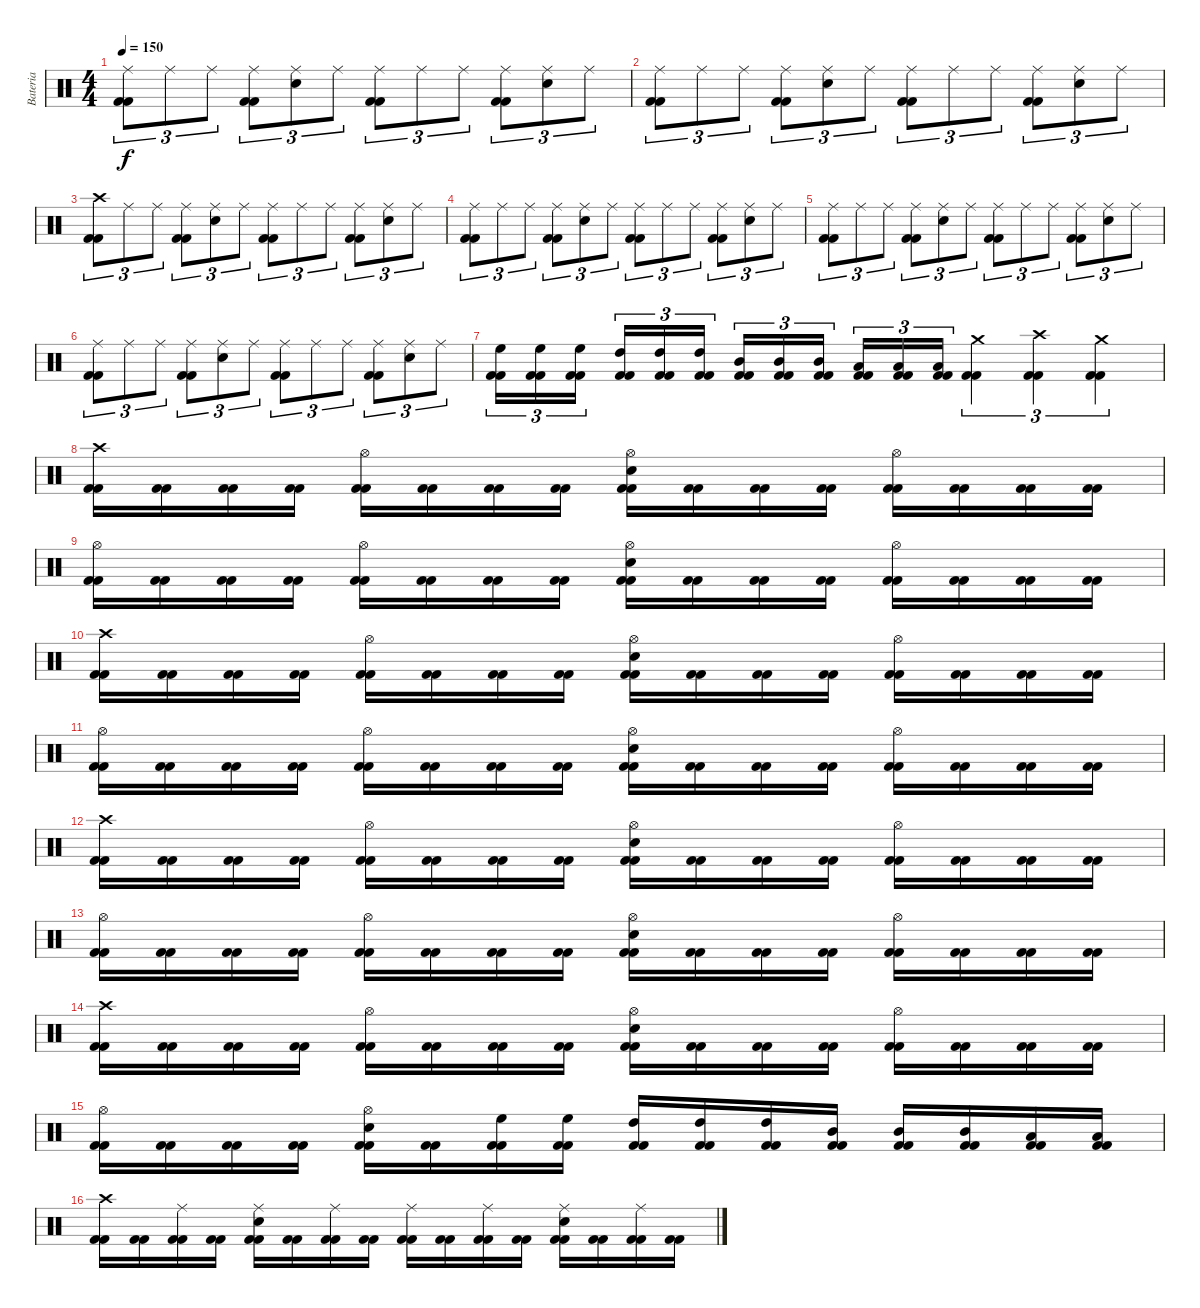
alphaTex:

\track ("Bateria" "Bateria") {instrument percussion}
\staff {score}
\articulation defaults
\ts (4 4)
\tempo 150
\clef neutral
\ks c
("Kick (hit) 2" "Kick (hit) 2" "Ride (middle)").8{tu (3 2) dy f} "Ride (middle)".8{tu (3 2)} "Ride (middle)".8{tu (3 2)} ("Kick (hit) 2" "Kick (hit) 2" "Ride (middle)").8{tu (3 2)} ("Snare (hit) 2" "Ride (middle)").8{tu (3 2)} "Ride (middle)".8{tu (3 2)} ("Kick (hit) 2" "Kick (hit) 2" "Ride (middle)").8{tu (3 2)} "Ride (middle)".8{tu (3 2)} "Ride (middle)".8{tu (3 2)} ("Kick (hit) 2" "Kick (hit) 2" "Ride (middle)").8{tu (3 2)} ("Snare (hit) 2" "Ride (middle)").8{tu (3 2)} "Ride (middle)".8{tu (3 2)} |
("Kick (hit) 2" "Kick (hit) 2" "Ride (middle)").8{tu (3 2)} "Ride (middle)".8{tu (3 2)} "Ride (middle)".8{tu (3 2)} ("Kick (hit) 2" "Kick (hit) 2" "Ride (middle)").8{tu (3 2)} ("Snare (hit) 2" "Ride (middle)").8{tu (3 2)} "Ride (middle)".8{tu (3 2)} ("Kick (hit) 2" "Kick (hit) 2" "Ride (middle)").8{tu (3 2)} "Ride (middle)".8{tu (3 2)} "Ride (middle)".8{tu (3 2)} ("Kick (hit) 2" "Kick (hit) 2" "Ride (middle)").8{tu (3 2)} ("Snare (hit) 2" "Ride (middle)").8{tu (3 2)} "Ride (middle)".8{tu (3 2)} |
("Kick (hit) 2" "Kick (hit) 2" "Crash high (hit)").8{tu (3 2)} "Ride (middle)".8{tu (3 2)} "Ride (middle)".8{tu (3 2)} ("Kick (hit) 2" "Kick (hit) 2" "Ride (middle)").8{tu (3 2)} ("Snare (hit) 2" "Ride (middle)").8{tu (3 2)} "Ride (middle)".8{tu (3 2)} ("Kick (hit) 2" "Kick (hit) 2" "Ride (middle)").8{tu (3 2)} "Ride (middle)".8{tu (3 2)} "Ride (middle)".8{tu (3 2)} ("Kick (hit) 2" "Kick (hit) 2" "Ride (middle)").8{tu (3 2)} ("Snare (hit) 2" "Ride (middle)").8{tu (3 2)} "Ride (middle)".8{tu (3 2)} |
("Kick (hit) 2" "Kick (hit) 2" "Ride (middle)").8{tu (3 2)} "Ride (middle)".8{tu (3 2)} "Ride (middle)".8{tu (3 2)} ("Kick (hit) 2" "Kick (hit) 2" "Ride (middle)").8{tu (3 2)} ("Snare (hit) 2" "Ride (middle)").8{tu (3 2)} "Ride (middle)".8{tu (3 2)} ("Kick (hit) 2" "Kick (hit) 2" "Ride (middle)").8{tu (3 2)} "Ride (middle)".8{tu (3 2)} "Ride (middle)".8{tu (3 2)} ("Kick (hit) 2" "Kick (hit) 2" "Ride (middle)").8{tu (3 2)} ("Snare (hit) 2" "Ride (middle)").8{tu (3 2)} "Ride (middle)".8{tu (3 2)} |
("Kick (hit) 2" "Kick (hit) 2" "Ride (middle)").8{tu (3 2)} "Ride (middle)".8{tu (3 2)} "Ride (middle)".8{tu (3 2)} ("Kick (hit) 2" "Kick (hit) 2" "Ride (middle)").8{tu (3 2)} ("Snare (hit) 2" "Ride (middle)").8{tu (3 2)} "Ride (middle)".8{tu (3 2)} ("Kick (hit) 2" "Kick (hit) 2" "Ride (middle)").8{tu (3 2)} "Ride (middle)".8{tu (3 2)} "Ride (middle)".8{tu (3 2)} ("Kick (hit) 2" "Kick (hit) 2" "Ride (middle)").8{tu (3 2)} ("Snare (hit) 2" "Ride (middle)").8{tu (3 2)} "Ride (middle)".8{tu (3 2)} |
("Kick (hit) 2" "Kick (hit) 2" "Ride (middle)").8{tu (3 2)} "Ride (middle)".8{tu (3 2)} "Ride (middle)".8{tu (3 2)} ("Kick (hit) 2" "Kick (hit) 2" "Ride (middle)").8{tu (3 2)} ("Snare (hit) 2" "Ride (middle)").8{tu (3 2)} "Ride (middle)".8{tu (3 2)} ("Kick (hit) 2" "Kick (hit) 2" "Ride (middle)").8{tu (3 2)} "Ride (middle)".8{tu (3 2)} "Ride (middle)".8{tu (3 2)} ("Kick (hit) 2" "Kick (hit) 2" "Ride (middle)").8{tu (3 2)} ("Snare (hit) 2" "Ride (middle)").8{tu (3 2)} "Ride (middle)".8{tu (3 2)} |
("Kick (hit) 2" "Kick (hit) 2" "High Floor Tom (hit)").16{tu (3 2)} ("Kick (hit) 2" "Kick (hit) 2" "High Floor Tom (hit)").16{tu (3 2)} ("Kick (hit) 2" "Kick (hit) 2" "High Floor Tom (hit)").16{tu (3 2)} ("Kick (hit) 2" "Kick (hit) 2" "High Tom (hit)").16{tu (3 2)} ("Kick (hit) 2" "Kick (hit) 2" "High Tom (hit)").16{tu (3 2)} ("Kick (hit) 2" "Kick (hit) 2" "High Tom (hit)").16{tu (3 2)} ("Kick (hit) 2" "Kick (hit) 2" "Mid Tom (hit)").16{tu (3 2)} ("Kick (hit) 2" "Kick (hit) 2" "Mid Tom (hit)").16{tu (3 2)} ("Kick (hit) 2" "Kick (hit) 2" "Mid Tom (hit)").16{tu (3 2)} ("Kick (hit) 2" "Kick (hit) 2" "Low Tom (hit)").16{tu (3 2)} ("Kick (hit) 2" "Kick (hit) 2" "Low Tom (hit)").16{tu (3 2)} ("Kick (hit) 2" "Kick (hit) 2" "Low Tom (hit)").16{tu (3 2)} ("Kick (hit) 2" "Kick (hit) 2" "Crash medium (hit)").4{tu (3 2)} ("Kick (hit) 2" "Kick (hit) 2" "Crash high (hit)").4{tu (3 2)} ("Kick (hit) 2" "Kick (hit) 2" "Crash medium (hit)").4{tu (3 2)} |
("Kick (hit) 2" "Kick (hit) 2" "Crash high (hit)").16 ("Kick (hit) 2" "Kick (hit) 2").16 ("Kick (hit) 2" "Kick (hit) 2").16 ("Kick (hit) 2" "Kick (hit) 2").16 ("Kick (hit) 2" "Kick (hit) 2" "Hi-Hat (open)").16 ("Kick (hit) 2" "Kick (hit) 2").16 ("Kick (hit) 2" "Kick (hit) 2").16 ("Kick (hit) 2" "Kick (hit) 2").16 ("Kick (hit) 2" "Kick (hit) 2" "Snare (hit) 2" "Hi-Hat (open)").16 ("Kick (hit) 2" "Kick (hit) 2").16 ("Kick (hit) 2" "Kick (hit) 2").16 ("Kick (hit) 2" "Kick (hit) 2").16 ("Kick (hit) 2" "Kick (hit) 2" "Hi-Hat (open)").16 ("Kick (hit) 2" "Kick (hit) 2").16 ("Kick (hit) 2" "Kick (hit) 2").16 ("Kick (hit) 2" "Kick (hit) 2").16 |
("Kick (hit) 2" "Kick (hit) 2" "Hi-Hat (open)").16 ("Kick (hit) 2" "Kick (hit) 2").16 ("Kick (hit) 2" "Kick (hit) 2").16 ("Kick (hit) 2" "Kick (hit) 2").16 ("Kick (hit) 2" "Kick (hit) 2" "Hi-Hat (open)").16 ("Kick (hit) 2" "Kick (hit) 2").16 ("Kick (hit) 2" "Kick (hit) 2").16 ("Kick (hit) 2" "Kick (hit) 2").16 ("Kick (hit) 2" "Kick (hit) 2" "Snare (hit) 2" "Hi-Hat (open)").16 ("Kick (hit) 2" "Kick (hit) 2").16 ("Kick (hit) 2" "Kick (hit) 2").16 ("Kick (hit) 2" "Kick (hit) 2").16 ("Kick (hit) 2" "Kick (hit) 2" "Hi-Hat (open)").16 ("Kick (hit) 2" "Kick (hit) 2").16 ("Kick (hit) 2" "Kick (hit) 2").16 ("Kick (hit) 2" "Kick (hit) 2").16 |
("Kick (hit) 2" "Kick (hit) 2" "Crash high (hit)").16 ("Kick (hit) 2" "Kick (hit) 2").16 ("Kick (hit) 2" "Kick (hit) 2").16 ("Kick (hit) 2" "Kick (hit) 2").16 ("Kick (hit) 2" "Kick (hit) 2" "Hi-Hat (open)").16 ("Kick (hit) 2" "Kick (hit) 2").16 ("Kick (hit) 2" "Kick (hit) 2").16 ("Kick (hit) 2" "Kick (hit) 2").16 ("Kick (hit) 2" "Kick (hit) 2" "Snare (hit) 2" "Hi-Hat (open)").16 ("Kick (hit) 2" "Kick (hit) 2").16 ("Kick (hit) 2" "Kick (hit) 2").16 ("Kick (hit) 2" "Kick (hit) 2").16 ("Kick (hit) 2" "Kick (hit) 2" "Hi-Hat (open)").16 ("Kick (hit) 2" "Kick (hit) 2").16 ("Kick (hit) 2" "Kick (hit) 2").16 ("Kick (hit) 2" "Kick (hit) 2").16 |
("Kick (hit) 2" "Kick (hit) 2" "Hi-Hat (open)").16 ("Kick (hit) 2" "Kick (hit) 2").16 ("Kick (hit) 2" "Kick (hit) 2").16 ("Kick (hit) 2" "Kick (hit) 2").16 ("Kick (hit) 2" "Kick (hit) 2" "Hi-Hat (open)").16 ("Kick (hit) 2" "Kick (hit) 2").16 ("Kick (hit) 2" "Kick (hit) 2").16 ("Kick (hit) 2" "Kick (hit) 2").16 ("Kick (hit) 2" "Kick (hit) 2" "Snare (hit) 2" "Hi-Hat (open)").16 ("Kick (hit) 2" "Kick (hit) 2").16 ("Kick (hit) 2" "Kick (hit) 2").16 ("Kick (hit) 2" "Kick (hit) 2").16 ("Kick (hit) 2" "Kick (hit) 2" "Hi-Hat (open)").16 ("Kick (hit) 2" "Kick (hit) 2").16 ("Kick (hit) 2" "Kick (hit) 2").16 ("Kick (hit) 2" "Kick (hit) 2").16 |
("Kick (hit) 2" "Kick (hit) 2" "Crash high (hit)").16 ("Kick (hit) 2" "Kick (hit) 2").16 ("Kick (hit) 2" "Kick (hit) 2").16 ("Kick (hit) 2" "Kick (hit) 2").16 ("Kick (hit) 2" "Kick (hit) 2" "Hi-Hat (open)").16 ("Kick (hit) 2" "Kick (hit) 2").16 ("Kick (hit) 2" "Kick (hit) 2").16 ("Kick (hit) 2" "Kick (hit) 2").16 ("Kick (hit) 2" "Kick (hit) 2" "Snare (hit) 2" "Hi-Hat (open)").16 ("Kick (hit) 2" "Kick (hit) 2").16 ("Kick (hit) 2" "Kick (hit) 2").16 ("Kick (hit) 2" "Kick (hit) 2").16 ("Kick (hit) 2" "Kick (hit) 2" "Hi-Hat (open)").16 ("Kick (hit) 2" "Kick (hit) 2").16 ("Kick (hit) 2" "Kick (hit) 2").16 ("Kick (hit) 2" "Kick (hit) 2").16 |
("Kick (hit) 2" "Kick (hit) 2" "Hi-Hat (open)").16 ("Kick (hit) 2" "Kick (hit) 2").16 ("Kick (hit) 2" "Kick (hit) 2").16 ("Kick (hit) 2" "Kick (hit) 2").16 ("Kick (hit) 2" "Kick (hit) 2" "Hi-Hat (open)").16 ("Kick (hit) 2" "Kick (hit) 2").16 ("Kick (hit) 2" "Kick (hit) 2").16 ("Kick (hit) 2" "Kick (hit) 2").16 ("Kick (hit) 2" "Kick (hit) 2" "Snare (hit) 2" "Hi-Hat (open)").16 ("Kick (hit) 2" "Kick (hit) 2").16 ("Kick (hit) 2" "Kick (hit) 2").16 ("Kick (hit) 2" "Kick (hit) 2").16 ("Kick (hit) 2" "Kick (hit) 2" "Hi-Hat (open)").16 ("Kick (hit) 2" "Kick (hit) 2").16 ("Kick (hit) 2" "Kick (hit) 2").16 ("Kick (hit) 2" "Kick (hit) 2").16 |
("Kick (hit) 2" "Kick (hit) 2" "Crash high (hit)").16 ("Kick (hit) 2" "Kick (hit) 2").16 ("Kick (hit) 2" "Kick (hit) 2").16 ("Kick (hit) 2" "Kick (hit) 2").16 ("Kick (hit) 2" "Kick (hit) 2" "Hi-Hat (open)").16 ("Kick (hit) 2" "Kick (hit) 2").16 ("Kick (hit) 2" "Kick (hit) 2").16 ("Kick (hit) 2" "Kick (hit) 2").16 ("Kick (hit) 2" "Kick (hit) 2" "Snare (hit) 2" "Hi-Hat (open)").16 ("Kick (hit) 2" "Kick (hit) 2").16 ("Kick (hit) 2" "Kick (hit) 2").16 ("Kick (hit) 2" "Kick (hit) 2").16 ("Kick (hit) 2" "Kick (hit) 2" "Hi-Hat (open)").16 ("Kick (hit) 2" "Kick (hit) 2").16 ("Kick (hit) 2" "Kick (hit) 2").16 ("Kick (hit) 2" "Kick (hit) 2").16 |
("Kick (hit) 2" "Kick (hit) 2" "Hi-Hat (open)").16 ("Kick (hit) 2" "Kick (hit) 2").16 ("Kick (hit) 2" "Kick (hit) 2").16 ("Kick (hit) 2" "Kick (hit) 2").16 ("Kick (hit) 2" "Kick (hit) 2" "Snare (hit) 2" "Hi-Hat (open)").16 ("Kick (hit) 2" "Kick (hit) 2").16 ("Kick (hit) 2" "Kick (hit) 2" "High Floor Tom (hit)").16 ("Kick (hit) 2" "Kick (hit) 2" "High Floor Tom (hit)").16 ("Kick (hit) 2" "Kick (hit) 2" "High Tom (hit)").16 ("Kick (hit) 2" "Kick (hit) 2" "High Tom (hit)").16 ("Kick (hit) 2" "Kick (hit) 2" "High Tom (hit)").16 ("Kick (hit) 2" "Kick (hit) 2" "Mid Tom (hit)").16 ("Kick (hit) 2" "Kick (hit) 2" "Mid Tom (hit)").16 ("Kick (hit) 2" "Kick (hit) 2" "Mid Tom (hit)").16 ("Kick (hit) 2" "Kick (hit) 2" "Low Tom (hit)").16 ("Kick (hit) 2" "Kick (hit) 2" "Low Tom (hit)").16 |
("Kick (hit) 2" "Kick (hit) 2" "Crash high (hit)").16 ("Kick (hit) 2" "Kick (hit) 2").16 ("Kick (hit) 2" "Kick (hit) 2" "Ride (middle)").16 ("Kick (hit) 2" "Kick (hit) 2").16 ("Kick (hit) 2" "Kick (hit) 2" "Snare (hit) 2" "Ride (middle)").16 ("Kick (hit) 2" "Kick (hit) 2").16 ("Kick (hit) 2" "Kick (hit) 2" "Ride (middle)").16 ("Kick (hit) 2" "Kick (hit) 2").16 ("Kick (hit) 2" "Kick (hit) 2" "Ride (middle)").16 ("Kick (hit) 2" "Kick (hit) 2").16 ("Kick (hit) 2" "Kick (hit) 2" "Ride (middle)").16 ("Kick (hit) 2" "Kick (hit) 2").16 ("Kick (hit) 2" "Kick (hit) 2" "Snare (hit) 2" "Ride (middle)").16 ("Kick (hit) 2" "Kick (hit) 2").16 ("Kick (hit) 2" "Kick (hit) 2" "Ride (middle)").16 ("Kick (hit) 2" "Kick (hit) 2").16
